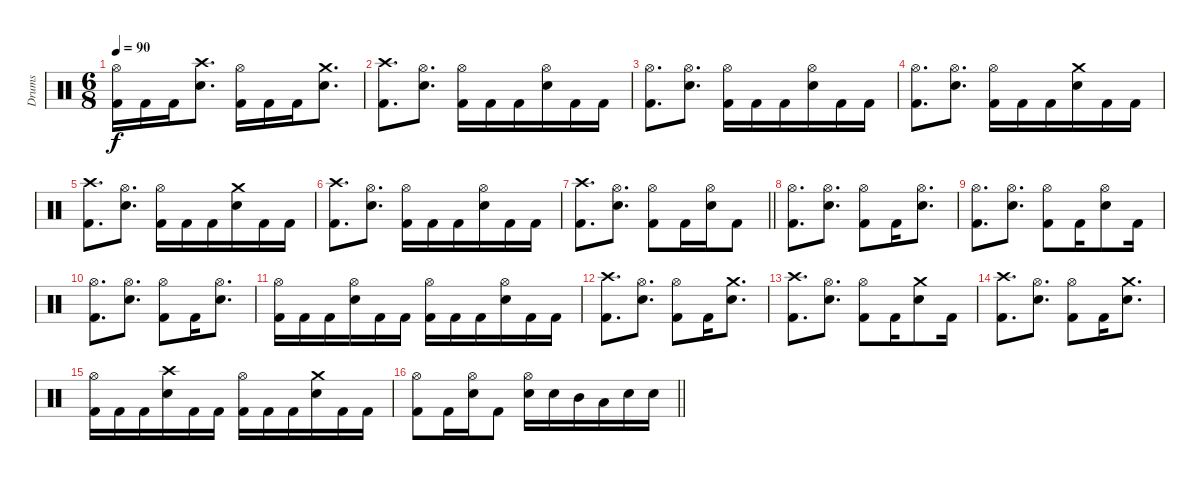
\track ("Drums" "Drums") {instrument percussion}
\staff {score}
\articulation defaults
\ts (6 8)
\tempo 90
\clef neutral
\ks c
("Kick (hit) 2" "Hi-Hat (open)").16{dy f} "Kick (hit) 2".16 "Kick (hit) 2".16 ("Electric Snare (hit)" "Crash high (hit)").8{d} ("Kick (hit) 2" "Hi-Hat (open)").16 "Kick (hit) 2".16 "Kick (hit) 2".16 ("Electric Snare (hit)" "Crash medium (hit)").8{d} |
("Kick (hit) 2" "Crash high (hit)").8{d} ("Electric Snare (hit)" "Hi-Hat (open)").8{d} ("Kick (hit) 2" "Hi-Hat (open)").16 "Kick (hit) 2".16 "Kick (hit) 2".16 ("Electric Snare (hit)" "Hi-Hat (open)").16 "Kick (hit) 2".16 "Kick (hit) 2".16 |
("Kick (hit) 2" "Hi-Hat (open)").8{d} ("Electric Snare (hit)" "Hi-Hat (open)").8{d} ("Kick (hit) 2" "Hi-Hat (open)").16 "Kick (hit) 2".16 "Kick (hit) 2".16 ("Electric Snare (hit)" "Hi-Hat (open)").16 "Kick (hit) 2".16 "Kick (hit) 2".16 |
("Kick (hit) 2" "Hi-Hat (open)").8{d} ("Electric Snare (hit)" "Hi-Hat (open)").8{d} ("Kick (hit) 2" "Hi-Hat (open)").16 "Kick (hit) 2".16 "Kick (hit) 2".16 ("Electric Snare (hit)" "Crash medium (hit)").16 "Kick (hit) 2".16 "Kick (hit) 2".16 |
("Kick (hit) 2" "Crash high (hit)").8{d} ("Electric Snare (hit)" "Hi-Hat (open)").8{d} ("Kick (hit) 2" "Hi-Hat (open)").16 "Kick (hit) 2".16 "Kick (hit) 2".16 ("Electric Snare (hit)" "Crash medium (hit)").16 "Kick (hit) 2".16 "Kick (hit) 2".16 |
("Kick (hit) 2" "Crash high (hit)").8{d} ("Electric Snare (hit)" "Hi-Hat (open)").8{d} ("Kick (hit) 2" "Hi-Hat (open)").16 "Kick (hit) 2".16 "Kick (hit) 2".16 ("Electric Snare (hit)" "Hi-Hat (open)").16 "Kick (hit) 2".16 "Kick (hit) 2".16 |
\barLineRight lightlight
("Kick (hit) 2" "Crash high (hit)").8{d} ("Electric Snare (hit)" "Hi-Hat (open)").8{d} ("Kick (hit) 2" "Hi-Hat (open)").8 "Kick (hit) 2".16 ("Electric Snare (hit)" "Hi-Hat (open)").16 "Kick (hit) 2".8 |
\section ("" "")
("Kick (hit) 2" "Hi-Hat (open)").8{d} ("Electric Snare (hit)" "Hi-Hat (open)").8{d} ("Kick (hit) 2" "Hi-Hat (open)").8 "Kick (hit) 2".16 ("Electric Snare (hit)" "Hi-Hat (open)").8{d} |
("Kick (hit) 2" "Hi-Hat (open)").8{d} ("Electric Snare (hit)" "Hi-Hat (open)").8{d} ("Kick (hit) 2" "Hi-Hat (open)").8 "Kick (hit) 2".16 ("Electric Snare (hit)" "Hi-Hat (open)").8 "Kick (hit) 2".16 |
("Kick (hit) 2" "Hi-Hat (open)").8{d} ("Electric Snare (hit)" "Hi-Hat (open)").8{d} ("Kick (hit) 2" "Hi-Hat (open)").8 "Kick (hit) 2".16 ("Electric Snare (hit)" "Hi-Hat (open)").8{d} |
("Kick (hit) 2" "Hi-Hat (open)").16 "Kick (hit) 2".16 "Kick (hit) 2".16 ("Electric Snare (hit)" "Hi-Hat (open)").16 "Kick (hit) 2".16 "Kick (hit) 2".16 ("Kick (hit) 2" "Hi-Hat (open)").16 "Kick (hit) 2".16 "Kick (hit) 2".16 ("Electric Snare (hit)" "Hi-Hat (open)").16 "Kick (hit) 2".16 "Kick (hit) 2".16 |
("Kick (hit) 2" "Crash high (hit)").8{d} ("Electric Snare (hit)" "Hi-Hat (open)").8{d} ("Kick (hit) 2" "Hi-Hat (open)").8 "Kick (hit) 2".16 ("Electric Snare (hit)" "Crash medium (hit)").8{d} |
("Kick (hit) 2" "Crash high (hit)").8{d} ("Electric Snare (hit)" "Hi-Hat (open)").8{d} ("Kick (hit) 2" "Hi-Hat (open)").8 "Kick (hit) 2".16 ("Electric Snare (hit)" "Crash medium (hit)").8 "Kick (hit) 2".16 |
("Kick (hit) 2" "Crash high (hit)").8{d} ("Electric Snare (hit)" "Hi-Hat (open)").8{d} ("Kick (hit) 2" "Hi-Hat (open)").8 "Kick (hit) 2".16 ("Electric Snare (hit)" "Crash medium (hit)").8{d} |
("Kick (hit) 2" "Hi-Hat (open)").16 "Kick (hit) 2".16 "Kick (hit) 2".16 ("Electric Snare (hit)" "Crash high (hit)").16 "Kick (hit) 2".16 "Kick (hit) 2".16 ("Kick (hit) 2" "Hi-Hat (open)").16 "Kick (hit) 2".16 "Kick (hit) 2".16 ("Electric Snare (hit)" "Crash medium (hit)").16 "Kick (hit) 2".16 "Kick (hit) 2".16 |
\barLineRight lightlight
("Kick (hit) 2" "Hi-Hat (open)").8 "Kick (hit) 2".16 ("Electric Snare (hit)" "Hi-Hat (open)").16 "Kick (hit) 2".8 ("Electric Snare (hit)" "Hi-Hat (open)").16 "Electric Snare (hit)".16 "Mid Tom (hit)".16 "Low Tom (hit)".16 "Electric Snare (hit)".16 "Electric Snare (hit)".16
